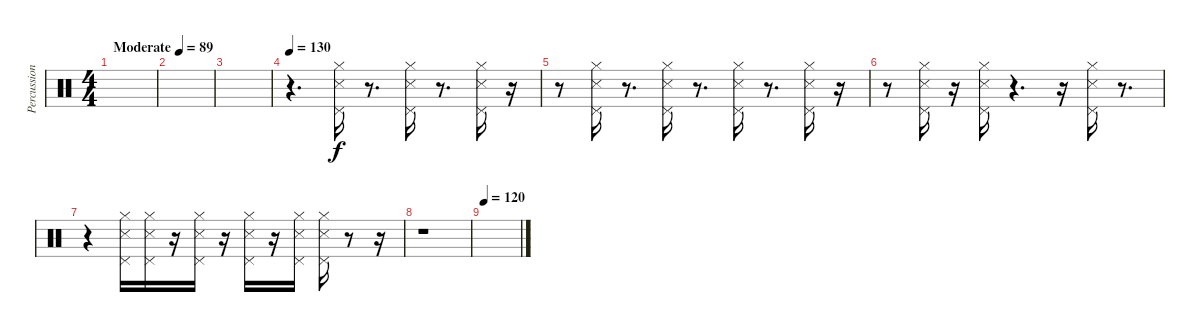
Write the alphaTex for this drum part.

\track ("Percussion" "Percussion") {instrument percussion}
\staff {score}
\articulation defaults
\ts (4 4)
\tempo (89 "Moderate")
\clef neutral
\ks c
|
|
|
\tempo 130
r.4{d} ("Hi-Hat (closed)" "Pedal Hi-Hat (hit)" "Snare (side stick) 3").16 r.8{d} ("Hi-Hat (closed)" "Pedal Hi-Hat (hit)" "Snare (side stick) 3").16 r.8{d} ("Hi-Hat (closed)" "Pedal Hi-Hat (hit)" "Snare (side stick) 3").16 r.16 |
r.8 ("Hi-Hat (closed)" "Pedal Hi-Hat (hit)" "Snare (side stick) 3").16 r.8{d} ("Hi-Hat (closed)" "Pedal Hi-Hat (hit)" "Snare (side stick) 3").16 r.8{d} ("Hi-Hat (closed)" "Pedal Hi-Hat (hit)" "Snare (side stick) 3").16 r.8{d} ("Hi-Hat (closed)" "Pedal Hi-Hat (hit)" "Snare (side stick) 3").16 r.16 |
r.8 ("Hi-Hat (closed)" "Pedal Hi-Hat (hit)" "Snare (side stick) 3").16 r.16 ("Hi-Hat (closed)" "Pedal Hi-Hat (hit)" "Snare (side stick) 3").16 r.4{d} r.16 ("Pedal Hi-Hat (hit)" "Snare (side stick) 3" "Hi-Hat (closed)").16 r.8{d} |
r.4 ("Hi-Hat (closed)" "Pedal Hi-Hat (hit)" "Snare (side stick) 3").16 ("Hi-Hat (closed)" "Pedal Hi-Hat (hit)" "Snare (side stick) 3").16 r.16 ("Hi-Hat (closed)" "Pedal Hi-Hat (hit)" "Snare (side stick) 3").16 r.16 ("Hi-Hat (closed)" "Pedal Hi-Hat (hit)" "Snare (side stick) 3").16 r.16 ("Hi-Hat (closed)" "Pedal Hi-Hat (hit)" "Snare (side stick) 3").16 ("Hi-Hat (closed)" "Pedal Hi-Hat (hit)" "Snare (side stick) 3").16 r.8 r.16 |
r.1 |
\tempo 120
